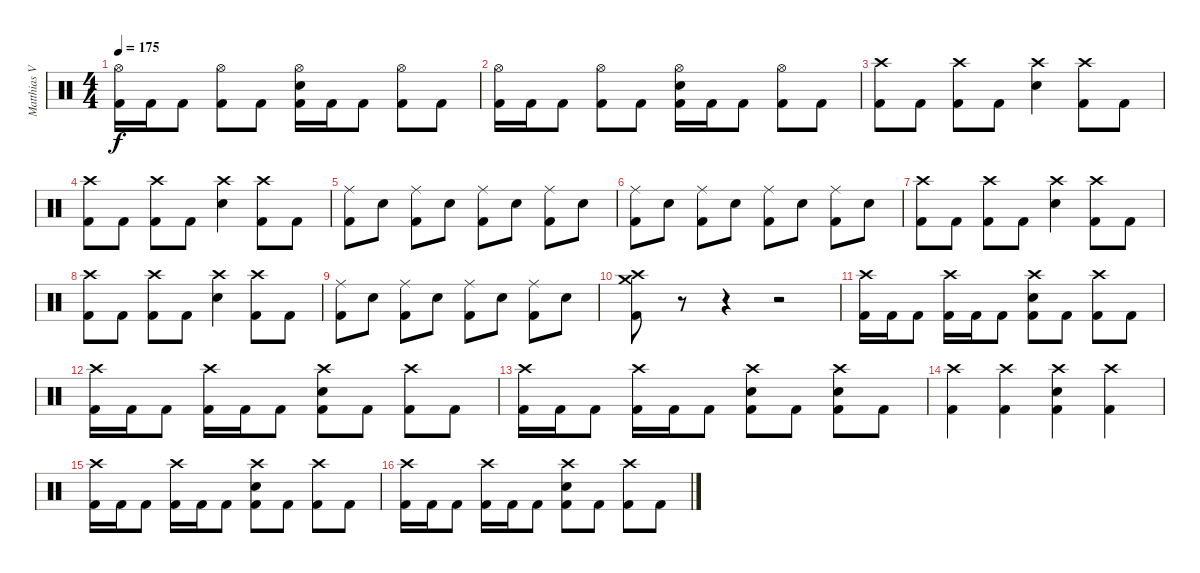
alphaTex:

\track ("Matthias Voigt" "Matthias V") {instrument percussion}
\staff {score}
\articulation defaults
\ts (4 4)
\tempo 175
\clef neutral
\ks c
("Hi-Hat (open)" "Kick (hit) 2").16{dy f} "Kick (hit) 2".16 "Kick (hit) 2".8 ("Hi-Hat (open)" "Kick (hit) 2").8 "Kick (hit) 2".8 ("Hi-Hat (open)" "Electric Snare (hit)" "Kick (hit) 2").16 "Kick (hit) 2".16 "Kick (hit) 2".8 ("Hi-Hat (open)" "Kick (hit) 2").8 "Kick (hit) 2".8 |
("Hi-Hat (open)" "Kick (hit) 2").16 "Kick (hit) 2".16 "Kick (hit) 2".8 ("Hi-Hat (open)" "Kick (hit) 2").8 "Kick (hit) 2".8 ("Hi-Hat (open)" "Electric Snare (hit)" "Kick (hit) 2").16 "Kick (hit) 2".16 "Kick (hit) 2".8 ("Hi-Hat (open)" "Kick (hit) 2").8 "Kick (hit) 2".8 |
("Crash high (hit)" "Kick (hit) 2").8 "Kick (hit) 2".8 ("Crash high (hit)" "Kick (hit) 2").8 "Kick (hit) 2".8 ("Crash high (hit)" "Electric Snare (hit)").4 ("Crash high (hit)" "Kick (hit) 2").8 "Kick (hit) 2".8 |
("Crash high (hit)" "Kick (hit) 2").8 "Kick (hit) 2".8 ("Crash high (hit)" "Kick (hit) 2").8 "Kick (hit) 2".8 ("Crash high (hit)" "Electric Snare (hit)").4 ("Crash high (hit)" "Kick (hit) 2").8 "Kick (hit) 2".8 |
("Ride (middle)" "Kick (hit) 2").8 "Electric Snare (hit)".8 ("Ride (middle)" "Kick (hit) 2").8 "Electric Snare (hit)".8 ("Ride (middle)" "Kick (hit) 2").8 "Electric Snare (hit)".8 ("Ride (middle)" "Kick (hit) 2").8 "Electric Snare (hit)".8 |
("Ride (middle)" "Kick (hit) 2").8 "Electric Snare (hit)".8 ("Ride (middle)" "Kick (hit) 2").8 "Electric Snare (hit)".8 ("Ride (middle)" "Kick (hit) 2").8 "Electric Snare (hit)".8 ("Ride (middle)" "Kick (hit) 2").8 "Electric Snare (hit)".8 |
("Crash high (hit)" "Kick (hit) 2").8 "Kick (hit) 2".8 ("Crash high (hit)" "Kick (hit) 2").8 "Kick (hit) 2".8 ("Crash high (hit)" "Electric Snare (hit)").4 ("Crash high (hit)" "Kick (hit) 2").8 "Kick (hit) 2".8 |
("Crash high (hit)" "Kick (hit) 2").8 "Kick (hit) 2".8 ("Crash high (hit)" "Kick (hit) 2").8 "Kick (hit) 2".8 ("Crash high (hit)" "Electric Snare (hit)").4 ("Crash high (hit)" "Kick (hit) 2").8 "Kick (hit) 2".8 |
("Ride (middle)" "Kick (hit) 2").8 "Electric Snare (hit)".8 ("Ride (middle)" "Kick (hit) 2").8 "Electric Snare (hit)".8 ("Ride (middle)" "Kick (hit) 2").8 "Electric Snare (hit)".8 ("Ride (middle)" "Kick (hit) 2").8 "Electric Snare (hit)".8 |
("Crash medium (hit)" "Crash high (hit)" "Kick (hit) 2").8 r.8 r.4 r.2 |
("Crash high (hit)" "Kick (hit) 2").16 "Kick (hit) 2".16 "Kick (hit) 2".8 ("Crash high (hit)" "Kick (hit) 2").16 "Kick (hit) 2".16 "Kick (hit) 2".8 ("Crash high (hit)" "Electric Snare (hit)" "Kick (hit) 2").8 "Kick (hit) 2".8 ("Crash high (hit)" "Kick (hit) 2").8 "Kick (hit) 2".8 |
("Crash high (hit)" "Kick (hit) 2").16 "Kick (hit) 2".16 "Kick (hit) 2".8 ("Crash high (hit)" "Kick (hit) 2").16 "Kick (hit) 2".16 "Kick (hit) 2".8 ("Crash high (hit)" "Electric Snare (hit)" "Kick (hit) 2").8 "Kick (hit) 2".8 ("Crash high (hit)" "Kick (hit) 2").8 "Kick (hit) 2".8 |
("Crash high (hit)" "Kick (hit) 2").16 "Kick (hit) 2".16 "Kick (hit) 2".8 ("Crash high (hit)" "Kick (hit) 2").16 "Kick (hit) 2".16 "Kick (hit) 2".8 ("Crash high (hit)" "Electric Snare (hit)" "Kick (hit) 2").8 "Kick (hit) 2".8 ("Crash high (hit)" "Electric Snare (hit)" "Kick (hit) 2").8 "Kick (hit) 2".8 |
("Crash high (hit)" "Kick (hit) 2").4 ("Crash high (hit)" "Kick (hit) 2").4 ("Crash high (hit)" "Electric Snare (hit)" "Kick (hit) 2").4 ("Crash high (hit)" "Kick (hit) 2").4 |
("Crash high (hit)" "Kick (hit) 2").16 "Kick (hit) 2".16 "Kick (hit) 2".8 ("Crash high (hit)" "Kick (hit) 2").16 "Kick (hit) 2".16 "Kick (hit) 2".8 ("Crash high (hit)" "Electric Snare (hit)" "Kick (hit) 2").8 "Kick (hit) 2".8 ("Crash high (hit)" "Kick (hit) 2").8 "Kick (hit) 2".8 |
("Crash high (hit)" "Kick (hit) 2").16 "Kick (hit) 2".16 "Kick (hit) 2".8 ("Crash high (hit)" "Kick (hit) 2").16 "Kick (hit) 2".16 "Kick (hit) 2".8 ("Crash high (hit)" "Electric Snare (hit)" "Kick (hit) 2").8 "Kick (hit) 2".8 ("Crash high (hit)" "Kick (hit) 2").8 "Kick (hit) 2".8
